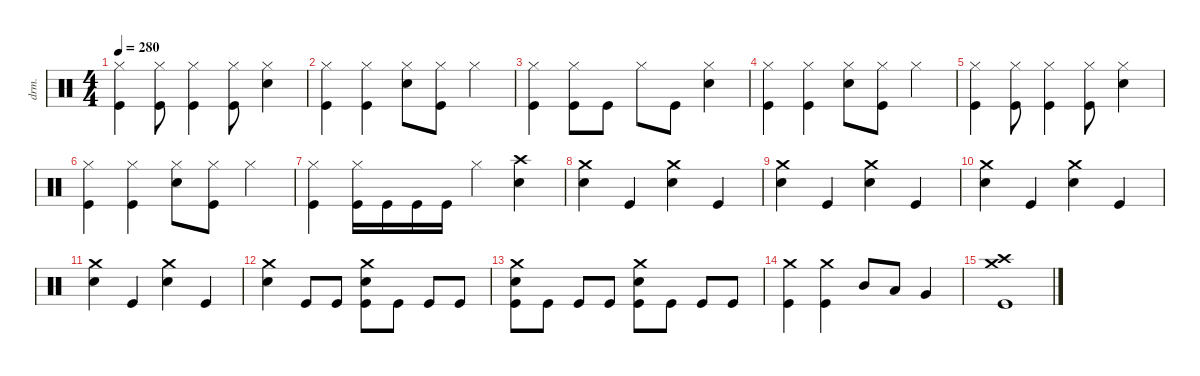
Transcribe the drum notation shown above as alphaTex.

\defaultSystemsLayout 4
\hideDynamics
\bracketExtendMode nobrackets
\otherSystemsTrackNameOrientation horizontal
\track ("Nick Menza" "drm.") {defaultSystemsLayout 4 instrument percussion}
\staff {score}
\articulation defaults
\ts (4 4)
\tempo 280
\clef neutral
\ks c
("Hi-Hat (closed)" "Kick (hit)").4{dy f beam Down} ("Hi-Hat (closed)" "Kick (hit)").8{beam Down} ("Hi-Hat (closed)" "Kick (hit)").4{beam Down} ("Hi-Hat (closed)" "Kick (hit)").8{beam Down} ("Hi-Hat (closed)" "Snare (hit) 2").4{beam Down} |
("Hi-Hat (closed)" "Kick (hit)").4{beam Down} ("Hi-Hat (closed)" "Kick (hit)").4{beam Down} ("Hi-Hat (closed)" "Snare (hit) 2").8{beam Down} ("Hi-Hat (closed)" "Kick (hit)").8{beam Down} "Hi-Hat (closed)".4{beam Down} |
("Hi-Hat (closed)" "Kick (hit)").4{beam Down} ("Hi-Hat (closed)" "Kick (hit)").8{beam Down} "Kick (hit)".8{beam Down} "Hi-Hat (closed)".8{beam Down} "Kick (hit)".8{beam Down} ("Hi-Hat (closed)" "Snare (hit) 2").4{beam Down} |
("Hi-Hat (closed)" "Kick (hit)").4{beam Down} ("Hi-Hat (closed)" "Kick (hit)").4{beam Down} ("Hi-Hat (closed)" "Snare (hit) 2").8{beam Down} ("Hi-Hat (closed)" "Kick (hit)").8{beam Down} "Hi-Hat (closed)".4{beam Down} |
("Hi-Hat (closed)" "Kick (hit)").4{beam Down} ("Hi-Hat (closed)" "Kick (hit)").8{beam Down} ("Hi-Hat (closed)" "Kick (hit)").4{beam Down} ("Hi-Hat (closed)" "Kick (hit)").8{beam Down} ("Hi-Hat (closed)" "Snare (hit) 2").4{beam Down} |
("Hi-Hat (closed)" "Kick (hit)").4{beam Down} ("Hi-Hat (closed)" "Kick (hit)").4{beam Down} ("Hi-Hat (closed)" "Snare (hit) 2").8{beam Down} ("Hi-Hat (closed)" "Kick (hit)").8{beam Down} "Hi-Hat (closed)".4{beam Down} |
("Hi-Hat (closed)" "Kick (hit)").4{beam Down} ("Hi-Hat (closed)" "Kick (hit)").16{beam Down} "Kick (hit)".16{beam Down} "Kick (hit)".16{beam Down} "Kick (hit)".16{beam Down} "Hi-Hat (closed)".4{beam Down} ("Crash high (hit)" "Snare (hit) 2").4{beam Down} |
("Crash medium (hit)" "Snare (hit) 2").4{beam Down} "Kick (hit)".4{beam Up} ("Crash medium (hit)" "Snare (hit) 2").4{beam Down} "Kick (hit)".4{beam Up} |
("Crash medium (hit)" "Snare (hit) 2").4{beam Down} "Kick (hit)".4{beam Up} ("Crash medium (hit)" "Snare (hit) 2").4{beam Down} "Kick (hit)".4{beam Up} |
("Crash medium (hit)" "Snare (hit) 2").4{beam Down} "Kick (hit)".4{beam Up} ("Crash medium (hit)" "Snare (hit) 2").4{beam Down} "Kick (hit)".4{beam Up} |
("Crash medium (hit)" "Snare (hit) 2").4{beam Down} "Kick (hit)".4{beam Up} ("Crash medium (hit)" "Snare (hit) 2").4{beam Down} "Kick (hit)".4{beam Up} |
("Crash medium (hit)" "Snare (hit) 2").4{beam Down} "Kick (hit)".8{beam Up} "Kick (hit)".8{beam Up} ("Crash medium (hit)" "Snare (hit) 2" "Kick (hit)").8{beam Down} "Kick (hit)".8{beam Down} "Kick (hit)".8{beam Up} "Kick (hit)".8{beam Up} |
("Crash medium (hit)" "Snare (hit) 2" "Kick (hit)").8{beam Down} "Kick (hit)".8{beam Down} "Kick (hit)".8{beam Up} "Kick (hit)".8{beam Up} ("Crash medium (hit)" "Snare (hit) 2" "Kick (hit)").8{beam Down} "Kick (hit)".8{beam Down} "Kick (hit)".8{beam Up} "Kick (hit)".8{beam Up} |
("Crash medium (hit)" "Kick (hit)").4{beam Down} ("Crash medium (hit)" "Kick (hit)").4{beam Down} "Mid Tom (hit)".8{beam Up} "Low Tom (hit)".8{beam Up} "Very Low Tom (hit)".4{beam Up} |
("Crash high (hit)" "Crash medium (hit)" "Kick (hit)").1{dy mf beam Down}
